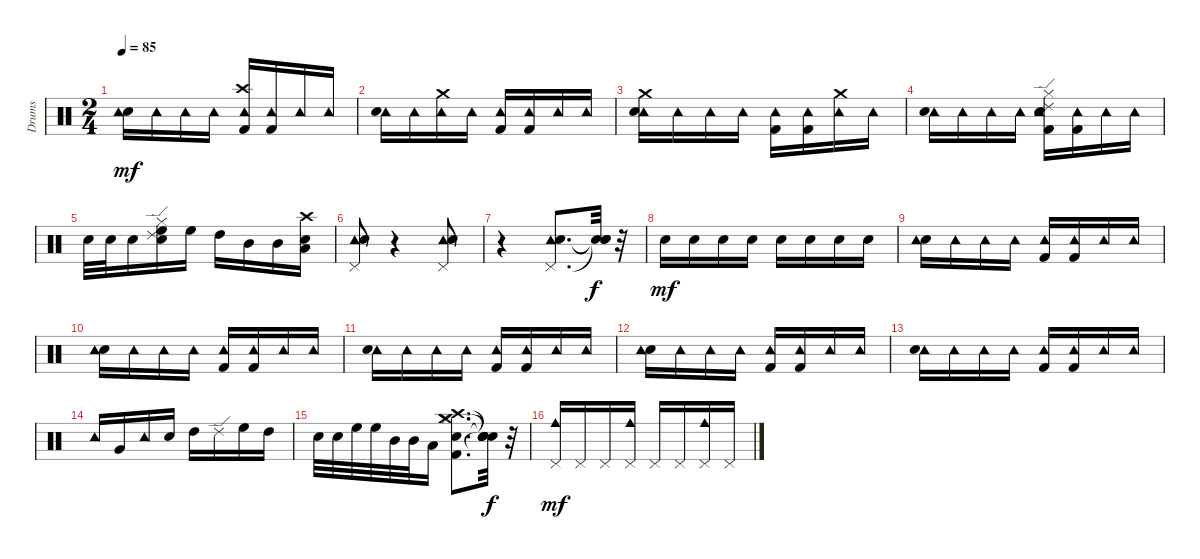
\track ("Drums" "Drums") {instrument percussion}
\staff {score}
\articulation defaults
\ts (2 4)
\tempo 85
\clef neutral
\ks c
("Snare (hit) 2" "Tambourine (hit)").16{dy mf} "Tambourine (hit)".16 "Tambourine (hit)".16 "Tambourine (hit)".16 ("Crash high (hit)" "Tambourine (hit)" "Kick (hit) 2").16 ("Kick (hit) 2" "Tambourine (hit)").16 "Tambourine (hit)".16 "Tambourine (hit)".16 |
("Tambourine (hit)" "Snare (hit) 2").16 "Tambourine (hit)".16 ("Crash medium (hit)" "Tambourine (hit)").16 "Tambourine (hit)".16 ("Kick (hit) 2" "Tambourine (hit)").16 ("Tambourine (hit)" "Kick (hit) 2").16 "Tambourine (hit)".16 "Tambourine (hit)".16 |
("Crash medium (hit)" "Tambourine (hit)" "Snare (hit) 2").16 "Tambourine (hit)".16 "Tambourine (hit)".16 "Tambourine (hit)".16 ("Kick (hit) 2" "Tambourine (hit)").16 ("Tambourine (hit)" "Kick (hit) 2").16 ("Crash medium (hit)" "Tambourine (hit)").16 "Tambourine (hit)".16 |
("Tambourine (hit)" "Snare (hit) 2").16 "Tambourine (hit)".16 "Tambourine (hit)".16 "Tambourine (hit)".16 ("Snare (hit) 2" "Ride (edge) 2" "Hi-Hat (closed)" "Kick (hit) 2" "Tambourine (hit)").16 ("Tambourine (hit)" "Kick (hit) 2").16 "Tambourine (hit)".16 "Tambourine (hit)".16 |
"Snare (hit) 2".32 "Snare (hit) 2".32 "Snare (hit) 2".16 ("Ride (edge) 2" "Hi-Hat (closed)" "Snare (hit) 2" "High Floor Tom (hit)").16 "High Floor Tom (hit)".16 "High Tom (hit)".16 "Mid Tom (hit)".16 "Mid Tom (hit)".16 ("Crash high (hit)" "Low Floor Tom (hit)" "Snare (hit) 2").16 |
("Pedal Hi-Hat (hit)" "Tambourine (hit)" "Snare (hit) 2").8 r.4 ("Pedal Hi-Hat (hit)" "Tambourine (hit)" "Snare (hit) 2").8 |
r.4 ("Pedal Hi-Hat (hit)" "Tambourine (hit)" "Snare (hit) 2").8{d} ("Snare (hit)"{t} "Snare (hit)"{t} "Snare (hit)"{t}).32{dy f} r.32 |
"Snare (hit) 2".16{dy mf} "Snare (hit) 2".16 "Snare (hit) 2".16 "Snare (hit) 2".16 "Snare (hit) 2".16 "Snare (hit) 2".16 "Snare (hit) 2".16 "Snare (hit) 2".16 |
("Snare (hit) 2" "Tambourine (hit)").16 "Tambourine (hit)".16 "Tambourine (hit)".16 "Tambourine (hit)".16 ("Kick (hit) 2" "Tambourine (hit)").16 ("Tambourine (hit)" "Kick (hit) 2").16 "Tambourine (hit)".16 "Tambourine (hit)".16 |
("Snare (hit) 2" "Tambourine (hit)").16 "Tambourine (hit)".16 "Tambourine (hit)".16 "Tambourine (hit)".16 ("Tambourine (hit)" "Kick (hit) 2").16 ("Kick (hit) 2" "Tambourine (hit)").16 "Tambourine (hit)".16 "Tambourine (hit)".16 |
("Tambourine (hit)" "Snare (hit) 2").16 "Tambourine (hit)".16 "Tambourine (hit)".16 "Tambourine (hit)".16 ("Kick (hit) 2" "Tambourine (hit)").16 ("Kick (hit) 2" "Tambourine (hit)").16 "Tambourine (hit)".16 "Tambourine (hit)".16 |
("Snare (hit) 2" "Tambourine (hit)").16 "Tambourine (hit)".16 "Tambourine (hit)".16 "Tambourine (hit)".16 ("Kick (hit) 2" "Tambourine (hit)").16 ("Kick (hit) 2" "Tambourine (hit)").16 "Tambourine (hit)".16 "Tambourine (hit)".16 |
("Tambourine (hit)" "Snare (hit) 2").16 "Tambourine (hit)".16 "Tambourine (hit)".16 "Tambourine (hit)".16 ("Kick (hit) 2" "Tambourine (hit)").16 ("Tambourine (hit)" "Kick (hit) 2").16 "Tambourine (hit)".16 "Tambourine (hit)".16 |
"Tambourine (hit)".16 "Very Low Tom (hit)".16 "Tambourine (hit)".16 "Snare (hit) 2".16 "High Tom (hit)".16 "Ride (edge) 2".16 "High Floor Tom (hit)".16 "High Tom (hit)".16 |
"Snare (hit) 2".32 "Snare (hit) 2".32 "High Floor Tom (hit)".32 "High Floor Tom (hit)".32 "Mid Tom (hit)".32 "Mid Tom (hit)".32 "Low Floor Tom (hit)".16 ("Hi-Hat (closed)" "Crash medium (hit)" "Snare (hit) 2" "Kick (hit) 2" "Crash high (hit)").8{d} ("Snare (hit)"{t} "Snare (hit)"{t} "Snare (hit)"{t} "Snare (hit)"{t} "Snare (hit)"{t}).32{dy f} r.32 |
("Pedal Hi-Hat (hit)" "Cowbell medium (hit)").16{dy mf} "Pedal Hi-Hat (hit)".16 "Pedal Hi-Hat (hit)".16 ("Pedal Hi-Hat (hit)" "Cowbell medium (hit)").16 "Pedal Hi-Hat (hit)".16 "Pedal Hi-Hat (hit)".16 ("Pedal Hi-Hat (hit)" "Cowbell medium (hit)").16 "Pedal Hi-Hat (hit)".16
